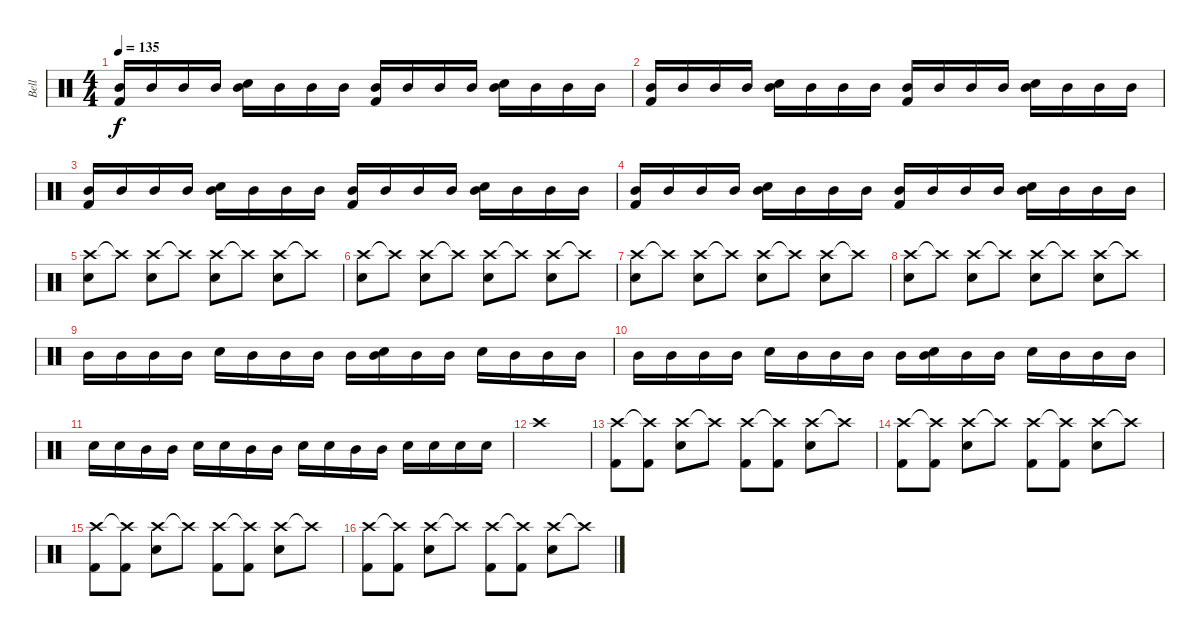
\track ("Bell" "Bell") {instrument percussion}
\staff {score}
\articulation defaults
\ts (4 4)
\tempo 135
\clef neutral
\ks c
("Mid Tom (hit)" "Kick (hit) 2").16{dy f} "Mid Tom (hit)".16 "Mid Tom (hit)".16 "Mid Tom (hit)".16 ("Mid Tom (hit)" "Snare (hit) 2").16 "Mid Tom (hit)".16 "Mid Tom (hit)".16 "Mid Tom (hit)".16 ("Mid Tom (hit)" "Kick (hit) 2").16 "Mid Tom (hit)".16 "Mid Tom (hit)".16 "Mid Tom (hit)".16 ("Mid Tom (hit)" "Snare (hit) 2").16 "Mid Tom (hit)".16 "Mid Tom (hit)".16 "Mid Tom (hit)".16 |
("Mid Tom (hit)" "Kick (hit) 2").16 "Mid Tom (hit)".16 "Mid Tom (hit)".16 "Mid Tom (hit)".16 ("Mid Tom (hit)" "Snare (hit) 2").16 "Mid Tom (hit)".16 "Mid Tom (hit)".16 "Mid Tom (hit)".16 ("Mid Tom (hit)" "Kick (hit) 2").16 "Mid Tom (hit)".16 "Mid Tom (hit)".16 "Mid Tom (hit)".16 ("Mid Tom (hit)" "Snare (hit) 2").16 "Mid Tom (hit)".16 "Mid Tom (hit)".16 "Mid Tom (hit)".16 |
("Mid Tom (hit)" "Kick (hit) 2").16 "Mid Tom (hit)".16 "Mid Tom (hit)".16 "Mid Tom (hit)".16 ("Mid Tom (hit)" "Snare (hit) 2").16 "Mid Tom (hit)".16 "Mid Tom (hit)".16 "Mid Tom (hit)".16 ("Mid Tom (hit)" "Kick (hit) 2").16 "Mid Tom (hit)".16 "Mid Tom (hit)".16 "Mid Tom (hit)".16 ("Mid Tom (hit)" "Snare (hit) 2").16 "Mid Tom (hit)".16 "Mid Tom (hit)".16 "Mid Tom (hit)".16 |
("Mid Tom (hit)" "Kick (hit) 2").16 "Mid Tom (hit)".16 "Mid Tom (hit)".16 "Mid Tom (hit)".16 ("Mid Tom (hit)" "Snare (hit) 2").16 "Mid Tom (hit)".16 "Mid Tom (hit)".16 "Mid Tom (hit)".16 ("Mid Tom (hit)" "Kick (hit) 2").16 "Mid Tom (hit)".16 "Mid Tom (hit)".16 "Mid Tom (hit)".16 ("Mid Tom (hit)" "Snare (hit) 2").16 "Mid Tom (hit)".16 "Mid Tom (hit)".16 "Mid Tom (hit)".16 |
("Crash high (hit)" "Snare (hit) 2").8 "Crash high (hit)"{t}.8 ("Crash high (hit)" "Snare (hit) 2").8 "Crash high (hit)"{t}.8 ("Crash high (hit)" "Snare (hit) 2").8 "Crash high (hit)"{t}.8 ("Crash high (hit)" "Snare (hit) 2").8 "Crash high (hit)"{t}.8 |
("Crash high (hit)" "Snare (hit) 2").8 "Crash high (hit)"{t}.8 ("Crash high (hit)" "Snare (hit) 2").8 "Crash high (hit)"{t}.8 ("Crash high (hit)" "Snare (hit) 2").8 "Crash high (hit)"{t}.8 ("Crash high (hit)" "Snare (hit) 2").8 "Crash high (hit)"{t}.8 |
("Crash high (hit)" "Snare (hit) 2").8 "Crash high (hit)"{t}.8 ("Crash high (hit)" "Snare (hit) 2").8 "Crash high (hit)"{t}.8 ("Crash high (hit)" "Snare (hit) 2").8 "Crash high (hit)"{t}.8 ("Crash high (hit)" "Snare (hit) 2").8 "Crash high (hit)"{t}.8 |
("Crash high (hit)" "Snare (hit) 2").8 "Crash high (hit)"{t}.8 ("Crash high (hit)" "Snare (hit) 2").8 "Crash high (hit)"{t}.8 ("Crash high (hit)" "Snare (hit) 2").8 "Crash high (hit)"{t}.8 ("Crash high (hit)" "Snare (hit) 2").8 "Crash high (hit)"{t}.8 |
"Mid Tom (hit)".16 "Mid Tom (hit)".16 "Mid Tom (hit)".16 "Mid Tom (hit)".16 "Snare (hit) 2".16 "Mid Tom (hit)".16 "Mid Tom (hit)".16 "Mid Tom (hit)".16 "Mid Tom (hit)".16 ("Mid Tom (hit)" "Snare (hit) 2").16 "Mid Tom (hit)".16 "Mid Tom (hit)".16 "Snare (hit) 2".16 "Mid Tom (hit)".16 "Mid Tom (hit)".16 "Mid Tom (hit)".16 |
"Mid Tom (hit)".16 "Mid Tom (hit)".16 "Mid Tom (hit)".16 "Mid Tom (hit)".16 "Snare (hit) 2".16 "Mid Tom (hit)".16 "Mid Tom (hit)".16 "Mid Tom (hit)".16 "Mid Tom (hit)".16 ("Mid Tom (hit)" "Snare (hit) 2").16 "Mid Tom (hit)".16 "Mid Tom (hit)".16 "Snare (hit) 2".16 "Mid Tom (hit)".16 "Mid Tom (hit)".16 "Mid Tom (hit)".16 |
"Snare (hit) 2".16 "Snare (hit) 2".16 "Mid Tom (hit)".16 "Mid Tom (hit)".16 "Snare (hit) 2".16 "Snare (hit) 2".16 "Mid Tom (hit)".16 "Mid Tom (hit)".16 "Snare (hit) 2".16 "Snare (hit) 2".16 "Mid Tom (hit)".16 "Mid Tom (hit)".16 "Snare (hit) 2".16 "Snare (hit) 2".16 "Snare (hit) 2".16 "Snare (hit) 2".16 |
"Crash high (hit)".1 |
("Crash high (hit)" "Kick (hit) 2").8 ("Crash high (hit)"{t} "Kick (hit) 2").8 ("Crash high (hit)" "Snare (hit) 2").8 "Crash high (hit)"{t}.8 ("Crash high (hit)" "Kick (hit) 2").8 ("Crash high (hit)"{t} "Kick (hit) 2").8 ("Crash high (hit)" "Snare (hit) 2").8 "Crash high (hit)"{t}.8 |
("Crash high (hit)" "Kick (hit) 2").8 ("Crash high (hit)"{t} "Kick (hit) 2").8 ("Crash high (hit)" "Snare (hit) 2").8 "Crash high (hit)"{t}.8 ("Crash high (hit)" "Kick (hit) 2").8 ("Crash high (hit)"{t} "Kick (hit) 2").8 ("Crash high (hit)" "Snare (hit) 2").8 "Crash high (hit)"{t}.8 |
("Crash high (hit)" "Kick (hit) 2").8 ("Crash high (hit)"{t} "Kick (hit) 2").8 ("Crash high (hit)" "Snare (hit) 2").8 "Crash high (hit)"{t}.8 ("Crash high (hit)" "Kick (hit) 2").8 ("Crash high (hit)"{t} "Kick (hit) 2").8 ("Crash high (hit)" "Snare (hit) 2").8 "Crash high (hit)"{t}.8 |
("Crash high (hit)" "Kick (hit) 2").8 ("Crash high (hit)"{t} "Kick (hit) 2").8 ("Crash high (hit)" "Snare (hit) 2").8 "Crash high (hit)"{t}.8 ("Crash high (hit)" "Kick (hit) 2").8 ("Crash high (hit)"{t} "Kick (hit) 2").8 ("Crash high (hit)" "Snare (hit) 2").8 "Crash high (hit)"{t}.8
